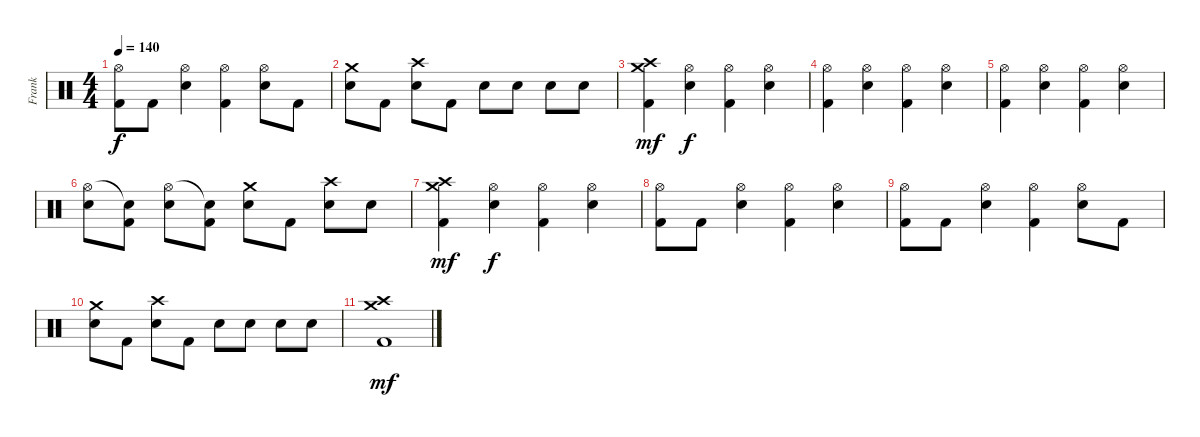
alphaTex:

\track ("Frank" "Frank") {instrument percussion}
\staff {score}
\articulation defaults
\ts (4 4)
\tempo 140
\clef neutral
\ks c
("Hi-Hat (open)" "Kick (hit) 2").8{dy f} "Kick (hit) 2".8 ("Hi-Hat (open)" "Snare (hit) 2").4 ("Hi-Hat (open)" "Kick (hit) 2").4 ("Hi-Hat (open)" "Snare (hit) 2").8 "Kick (hit) 2".8 |
("Crash medium (hit)" "Snare (hit) 2").8 "Kick (hit) 2".8 ("Crash high (hit)" "Snare (hit) 2").8 "Kick (hit) 2".8 "Snare (hit) 2".8 "Snare (hit) 2".8 "Snare (hit) 2".8 "Snare (hit) 2".8 |
("Crash medium (hit)" "Crash high (hit)" "Kick (hit) 2").4{dy mf} ("Hi-Hat (open)" "Snare (hit) 2").4{dy f} ("Hi-Hat (open)" "Kick (hit) 2").4 ("Hi-Hat (open)" "Snare (hit) 2").4 |
("Hi-Hat (open)" "Kick (hit) 2").4 ("Hi-Hat (open)" "Snare (hit) 2").4 ("Hi-Hat (open)" "Kick (hit) 2").4 ("Hi-Hat (open)" "Snare (hit) 2").4 |
("Hi-Hat (open)" "Kick (hit) 2").4 ("Hi-Hat (open)" "Snare (hit) 2").4 ("Hi-Hat (open)" "Kick (hit) 2").4 ("Hi-Hat (open)" "Snare (hit) 2").4 |
("Hi-Hat (open)" "Snare (hit) 2").8 ("Snare (hit)"{t} "Kick (hit) 2").8 ("Hi-Hat (open)" "Snare (hit) 2").8 ("Snare (hit)"{t} "Kick (hit) 2").8 ("Crash medium (hit)" "Snare (hit) 2").8 "Kick (hit) 2".8 ("Crash high (hit)" "Snare (hit) 2").8 "Snare (hit) 2".8 |
("Crash medium (hit)" "Crash high (hit)" "Kick (hit) 2").4{dy mf} ("Hi-Hat (open)" "Snare (hit) 2").4{dy f} ("Hi-Hat (open)" "Kick (hit) 2").4 ("Hi-Hat (open)" "Snare (hit) 2").4 |
("Hi-Hat (open)" "Kick (hit) 2").8 "Kick (hit) 2".8 ("Hi-Hat (open)" "Snare (hit) 2").4 ("Hi-Hat (open)" "Kick (hit) 2").4 ("Hi-Hat (open)" "Snare (hit) 2").4 |
("Hi-Hat (open)" "Kick (hit) 2").8 "Kick (hit) 2".8 ("Hi-Hat (open)" "Snare (hit) 2").4 ("Hi-Hat (open)" "Kick (hit) 2").4 ("Hi-Hat (open)" "Snare (hit) 2").8 "Kick (hit) 2".8 |
("Crash medium (hit)" "Snare (hit) 2").8 "Kick (hit) 2".8 ("Crash high (hit)" "Snare (hit) 2").8 "Kick (hit) 2".8 "Snare (hit) 2".8 "Snare (hit) 2".8 "Snare (hit) 2".8 "Snare (hit) 2".8 |
("Crash medium (hit)" "Crash high (hit)" "Kick (hit) 2").1{dy mf}
